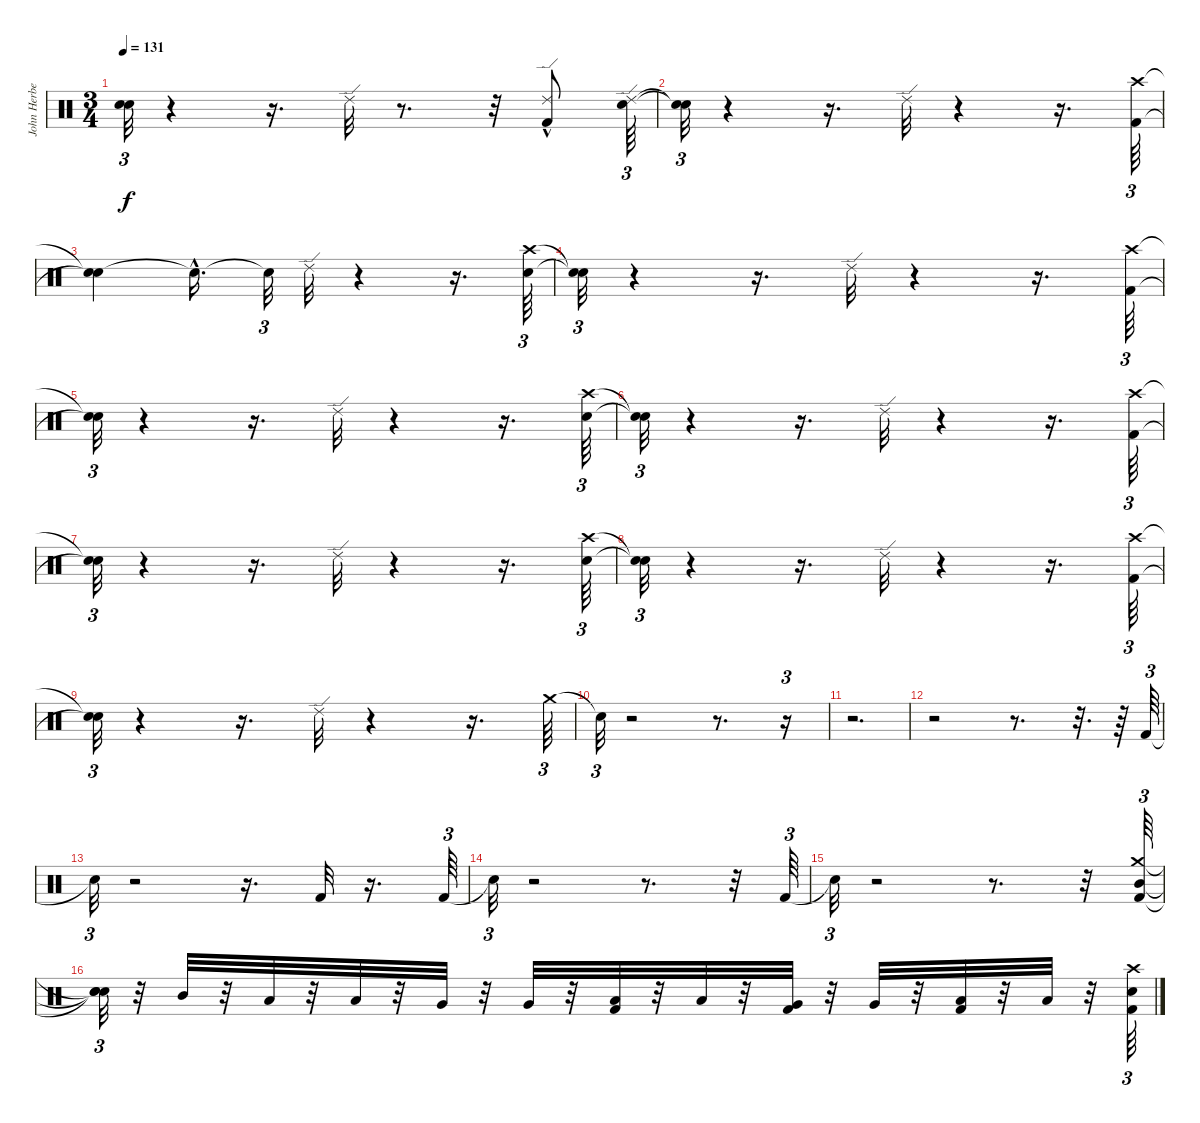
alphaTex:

\track ("John Herbert" "John Herbe") {instrument percussion}
\staff {score}
\articulation defaults
\ts (3 4)
\tempo 131
\clef neutral
\ks c
("Snare (hit)"{t} "Snare (hit)"{t}).32{tu (3 2) dy f} r.4 r.16{d} "Ride (edge) 2".32 r.8{d} r.32 ("Ride (edge) 2" "Kick (hit) 2"{hac}).8 ("Snare (hit) 2" "Ride (edge) 2").64{tu (3 2)} |
("Snare (hit)"{t} "Snare (hit)"{t}).32{tu (3 2)} r.4 r.16{d} "Ride (edge) 2".32 r.4 r.16{d} ("Kick (hit) 2" "Crash high (hit)").64{tu (3 2)} |
("Snare (hit)"{t} "Snare (hit)"{t}).4 "Snare (hit)"{hac t}.16{d} "Snare (hit)"{t}.32{tu (3 2)} "Ride (edge) 2".32 r.4 r.16{d} ("Crash high (hit)" "Electric Snare (hit)").64{tu (3 2)} |
("Snare (hit)"{t} "Snare (hit)"{t}).32{tu (3 2)} r.4 r.16{d} "Ride (edge) 2".32 r.4 r.16{d} ("Kick (hit) 2" "Crash high (hit)").64{tu (3 2)} |
("Snare (hit)"{t} "Snare (hit)"{t}).32{tu (3 2)} r.4 r.16{d} "Ride (edge) 2".32 r.4 r.16{d} ("Crash high (hit)" "Snare (hit) 2").64{tu (3 2)} |
("Snare (hit)"{t} "Snare (hit)"{t}).32{tu (3 2)} r.4 r.16{d} "Ride (edge) 2".32 r.4 r.16{d} ("Kick (hit) 2" "Crash high (hit)").64{tu (3 2)} |
("Snare (hit)"{t} "Snare (hit)"{t}).32{tu (3 2)} r.4 r.16{d} "Ride (edge) 2".32 r.4 r.16{d} ("Snare (hit) 2" "Crash high (hit)").64{tu (3 2)} |
("Snare (hit)"{t} "Snare (hit)"{t}).32{tu (3 2)} r.4 r.16{d} "Ride (edge) 2".32 r.4 r.16{d} ("Kick (hit) 2" "Crash high (hit)").64{tu (3 2)} |
("Snare (hit)"{t} "Snare (hit)"{t}).32{tu (3 2)} r.4 r.16{d} "Ride (edge) 2".32 r.4 r.16{d} "Crash medium (hit)".64{tu (3 2)} |
"Snare (hit)"{t}.32{tu (3 2)} r.2 r.8{d} r.16{tu (3 2)} |
r.2{d} |
r.2 r.8{d} r.32{d} r.64 "Kick (hit) 2".64{tu (3 2)} |
"Snare (hit)"{t}.32{tu (3 2)} r.2 r.16{d} "Kick (hit) 2".32 r.16{d} "Kick (hit) 2".64{tu (3 2)} |
"Snare (hit)"{t}.32{tu (3 2)} r.2 r.8{d} r.32 "Kick (hit) 2".64{tu (3 2)} |
"Snare (hit)"{t}.32{tu (3 2)} r.2 r.8{d} r.32 ("Mid Tom (hit)" "Crash medium (hit)" "Kick (hit) 2").64{tu (3 2)} |
("Snare (hit)"{t} "Snare (hit)"{t} "Snare (hit)"{t}).32{tu (3 2)} r.32 "Mid Tom (hit)".32 r.32 "Low Tom (hit)".32 r.32 "Low Tom (hit)".32 r.32 "Very Low Tom (hit)".32 r.32 "Very Low Tom (hit)".32 r.32 ("Kick (hit) 2" "Low Tom (hit)").32 r.32 "Low Tom (hit)".32 r.32 ("Kick (hit) 2" "Very Low Tom (hit)").32 r.32 "Very Low Tom (hit)".32 r.32 ("Kick (hit) 2" "Low Floor Tom (hit)").32 r.32 "Low Floor Tom (hit)".32 r.32 ("Snare (hit) 2" "Kick (hit) 2" "Crash high (hit)").64{tu (3 2)}
